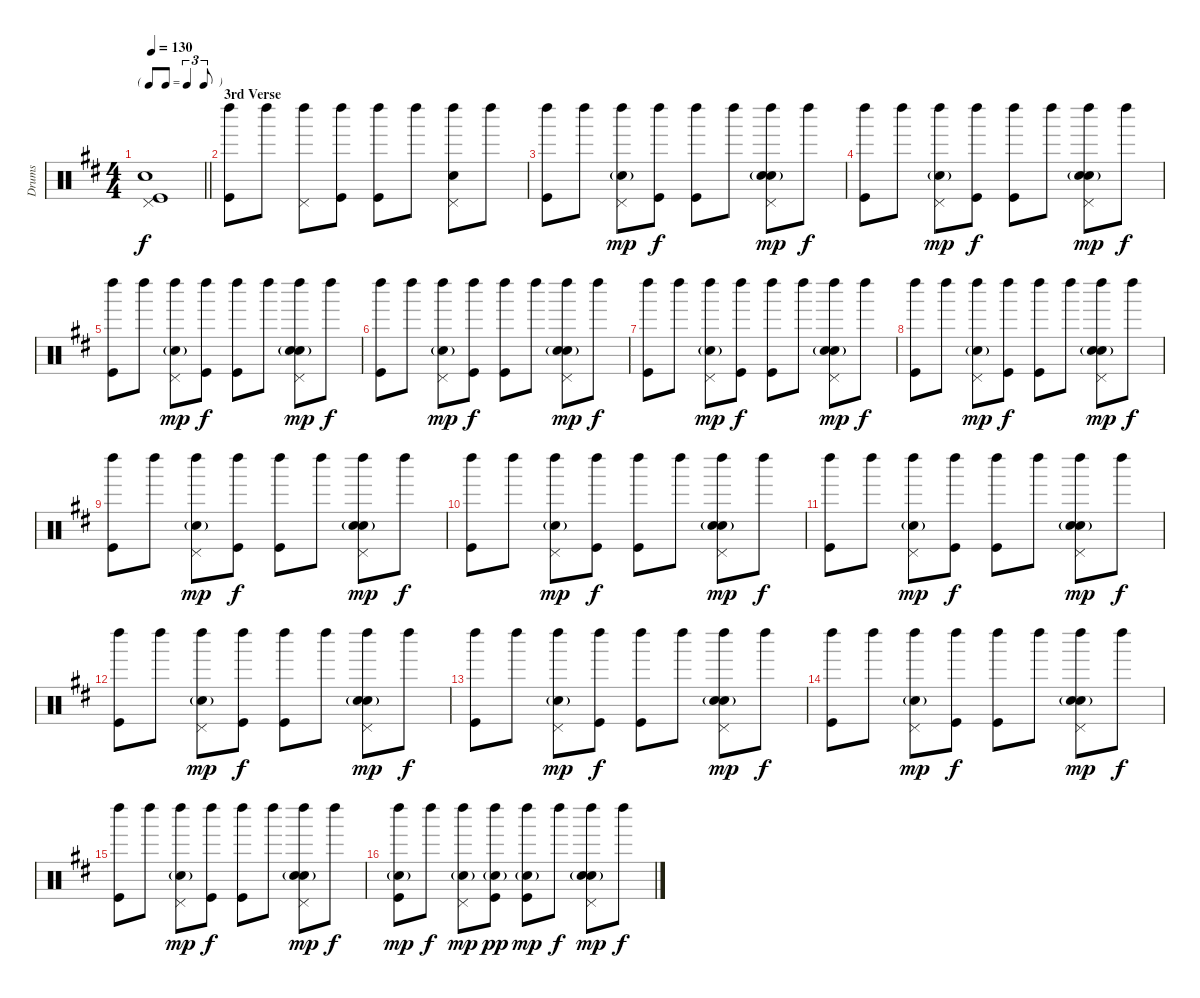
\track ("Drums" "Drums") {instrument percussion}
\staff {score}
\articulation defaults
\ts (4 4)
\tf triplet8th
\tempo 130
\clef neutral
\barLineRight lightlight
\ks d
("Pedal Hi-Hat (hit)" "Snare (hit) 2" "Kick (hit)").1{dy f} |
\section ("" "3rd Verse")
("Left Maraca (hit)" "Kick (hit)").8 "Left Maraca (hit)".8 ("Left Maraca (hit)" "Pedal Hi-Hat (hit)").8 ("Left Maraca (hit)" "Kick (hit)").8 ("Left Maraca (hit)" "Kick (hit)").8 "Left Maraca (hit)".8 ("Left Maraca (hit)" "Pedal Hi-Hat (hit)" "Hand Clap (hit)").8 "Left Maraca (hit)".8 |
("Left Maraca (hit)" "Kick (hit)").8 "Left Maraca (hit)".8 ("Left Maraca (hit)" "Pedal Hi-Hat (hit)" "Snare (hit) 2"{g}).8{dy mp} ("Left Maraca (hit)" "Kick (hit)").8{dy f} ("Left Maraca (hit)" "Kick (hit)").8 "Left Maraca (hit)".8 ("Left Maraca (hit)" "Pedal Hi-Hat (hit)" "Snare (hit) 2"{g} "Hand Clap (hit)").8{dy mp} "Left Maraca (hit)".8{dy f} |
("Left Maraca (hit)" "Kick (hit)").8 "Left Maraca (hit)".8 ("Left Maraca (hit)" "Pedal Hi-Hat (hit)" "Snare (hit) 2"{g}).8{dy mp} ("Left Maraca (hit)" "Kick (hit)").8{dy f} ("Left Maraca (hit)" "Kick (hit)").8 "Left Maraca (hit)".8 ("Left Maraca (hit)" "Pedal Hi-Hat (hit)" "Snare (hit) 2"{g} "Hand Clap (hit)").8{dy mp} "Left Maraca (hit)".8{dy f} |
("Left Maraca (hit)" "Kick (hit)").8 "Left Maraca (hit)".8 ("Left Maraca (hit)" "Pedal Hi-Hat (hit)" "Snare (hit) 2"{g}).8{dy mp} ("Left Maraca (hit)" "Kick (hit)").8{dy f} ("Left Maraca (hit)" "Kick (hit)").8 "Left Maraca (hit)".8 ("Left Maraca (hit)" "Pedal Hi-Hat (hit)" "Snare (hit) 2"{g} "Hand Clap (hit)").8{dy mp} "Left Maraca (hit)".8{dy f} |
("Left Maraca (hit)" "Kick (hit)").8 "Left Maraca (hit)".8 ("Left Maraca (hit)" "Pedal Hi-Hat (hit)" "Snare (hit) 2"{g}).8{dy mp} ("Left Maraca (hit)" "Kick (hit)").8{dy f} ("Left Maraca (hit)" "Kick (hit)").8 "Left Maraca (hit)".8 ("Left Maraca (hit)" "Pedal Hi-Hat (hit)" "Snare (hit) 2"{g} "Hand Clap (hit)").8{dy mp} "Left Maraca (hit)".8{dy f} |
("Left Maraca (hit)" "Kick (hit)").8 "Left Maraca (hit)".8 ("Left Maraca (hit)" "Pedal Hi-Hat (hit)" "Snare (hit) 2"{g}).8{dy mp} ("Left Maraca (hit)" "Kick (hit)").8{dy f} ("Left Maraca (hit)" "Kick (hit)").8 "Left Maraca (hit)".8 ("Left Maraca (hit)" "Pedal Hi-Hat (hit)" "Snare (hit) 2"{g} "Hand Clap (hit)").8{dy mp} "Left Maraca (hit)".8{dy f} |
("Left Maraca (hit)" "Kick (hit)").8 "Left Maraca (hit)".8 ("Left Maraca (hit)" "Pedal Hi-Hat (hit)" "Snare (hit) 2"{g}).8{dy mp} ("Left Maraca (hit)" "Kick (hit)").8{dy f} ("Left Maraca (hit)" "Kick (hit)").8 "Left Maraca (hit)".8 ("Left Maraca (hit)" "Pedal Hi-Hat (hit)" "Snare (hit) 2"{g} "Hand Clap (hit)").8{dy mp} "Left Maraca (hit)".8{dy f} |
("Left Maraca (hit)" "Kick (hit)").8 "Left Maraca (hit)".8 ("Left Maraca (hit)" "Pedal Hi-Hat (hit)" "Snare (hit) 2"{g}).8{dy mp} ("Left Maraca (hit)" "Kick (hit)").8{dy f} ("Left Maraca (hit)" "Kick (hit)").8 "Left Maraca (hit)".8 ("Left Maraca (hit)" "Pedal Hi-Hat (hit)" "Snare (hit) 2"{g} "Hand Clap (hit)").8{dy mp} "Left Maraca (hit)".8{dy f} |
("Left Maraca (hit)" "Kick (hit)").8 "Left Maraca (hit)".8 ("Left Maraca (hit)" "Pedal Hi-Hat (hit)" "Snare (hit) 2"{g}).8{dy mp} ("Left Maraca (hit)" "Kick (hit)").8{dy f} ("Left Maraca (hit)" "Kick (hit)").8 "Left Maraca (hit)".8 ("Left Maraca (hit)" "Pedal Hi-Hat (hit)" "Snare (hit) 2"{g} "Hand Clap (hit)").8{dy mp} "Left Maraca (hit)".8{dy f} |
("Left Maraca (hit)" "Kick (hit)").8 "Left Maraca (hit)".8 ("Left Maraca (hit)" "Pedal Hi-Hat (hit)" "Snare (hit) 2"{g}).8{dy mp} ("Left Maraca (hit)" "Kick (hit)").8{dy f} ("Left Maraca (hit)" "Kick (hit)").8 "Left Maraca (hit)".8 ("Left Maraca (hit)" "Pedal Hi-Hat (hit)" "Snare (hit) 2"{g} "Hand Clap (hit)").8{dy mp} "Left Maraca (hit)".8{dy f} |
("Left Maraca (hit)" "Kick (hit)").8 "Left Maraca (hit)".8 ("Left Maraca (hit)" "Pedal Hi-Hat (hit)" "Snare (hit) 2"{g}).8{dy mp} ("Left Maraca (hit)" "Kick (hit)").8{dy f} ("Left Maraca (hit)" "Kick (hit)").8 "Left Maraca (hit)".8 ("Left Maraca (hit)" "Pedal Hi-Hat (hit)" "Snare (hit) 2"{g} "Hand Clap (hit)").8{dy mp} "Left Maraca (hit)".8{dy f} |
("Left Maraca (hit)" "Kick (hit)").8 "Left Maraca (hit)".8 ("Left Maraca (hit)" "Pedal Hi-Hat (hit)" "Snare (hit) 2"{g}).8{dy mp} ("Left Maraca (hit)" "Kick (hit)").8{dy f} ("Left Maraca (hit)" "Kick (hit)").8 "Left Maraca (hit)".8 ("Left Maraca (hit)" "Pedal Hi-Hat (hit)" "Snare (hit) 2"{g} "Hand Clap (hit)").8{dy mp} "Left Maraca (hit)".8{dy f} |
("Left Maraca (hit)" "Kick (hit)").8 "Left Maraca (hit)".8 ("Left Maraca (hit)" "Pedal Hi-Hat (hit)" "Snare (hit) 2"{g}).8{dy mp} ("Left Maraca (hit)" "Kick (hit)").8{dy f} ("Left Maraca (hit)" "Kick (hit)").8 "Left Maraca (hit)".8 ("Left Maraca (hit)" "Pedal Hi-Hat (hit)" "Snare (hit) 2"{g} "Hand Clap (hit)").8{dy mp} "Left Maraca (hit)".8{dy f} |
("Left Maraca (hit)" "Kick (hit)").8 "Left Maraca (hit)".8 ("Left Maraca (hit)" "Pedal Hi-Hat (hit)" "Snare (hit) 2"{g}).8{dy mp} ("Left Maraca (hit)" "Kick (hit)").8{dy f} ("Left Maraca (hit)" "Kick (hit)").8 "Left Maraca (hit)".8 ("Left Maraca (hit)" "Pedal Hi-Hat (hit)" "Snare (hit) 2"{g} "Hand Clap (hit)").8{dy mp} "Left Maraca (hit)".8{dy f} |
("Left Maraca (hit)" "Snare (hit) 2"{g} "Kick (hit)").8{dy mp} "Left Maraca (hit)".8{dy f} ("Left Maraca (hit)" "Pedal Hi-Hat (hit)" "Snare (hit) 2"{g}).8{dy mp} ("Left Maraca (hit)" "Snare (hit) 2"{g} "Kick (hit)").8{dy pp} ("Left Maraca (hit)" "Snare (hit) 2"{g} "Kick (hit)").8{dy mp} "Left Maraca (hit)".8{dy f} ("Left Maraca (hit)" "Pedal Hi-Hat (hit)" "Snare (hit) 2"{g} "Hand Clap (hit)").8{dy mp} "Left Maraca (hit)".8{dy f}
